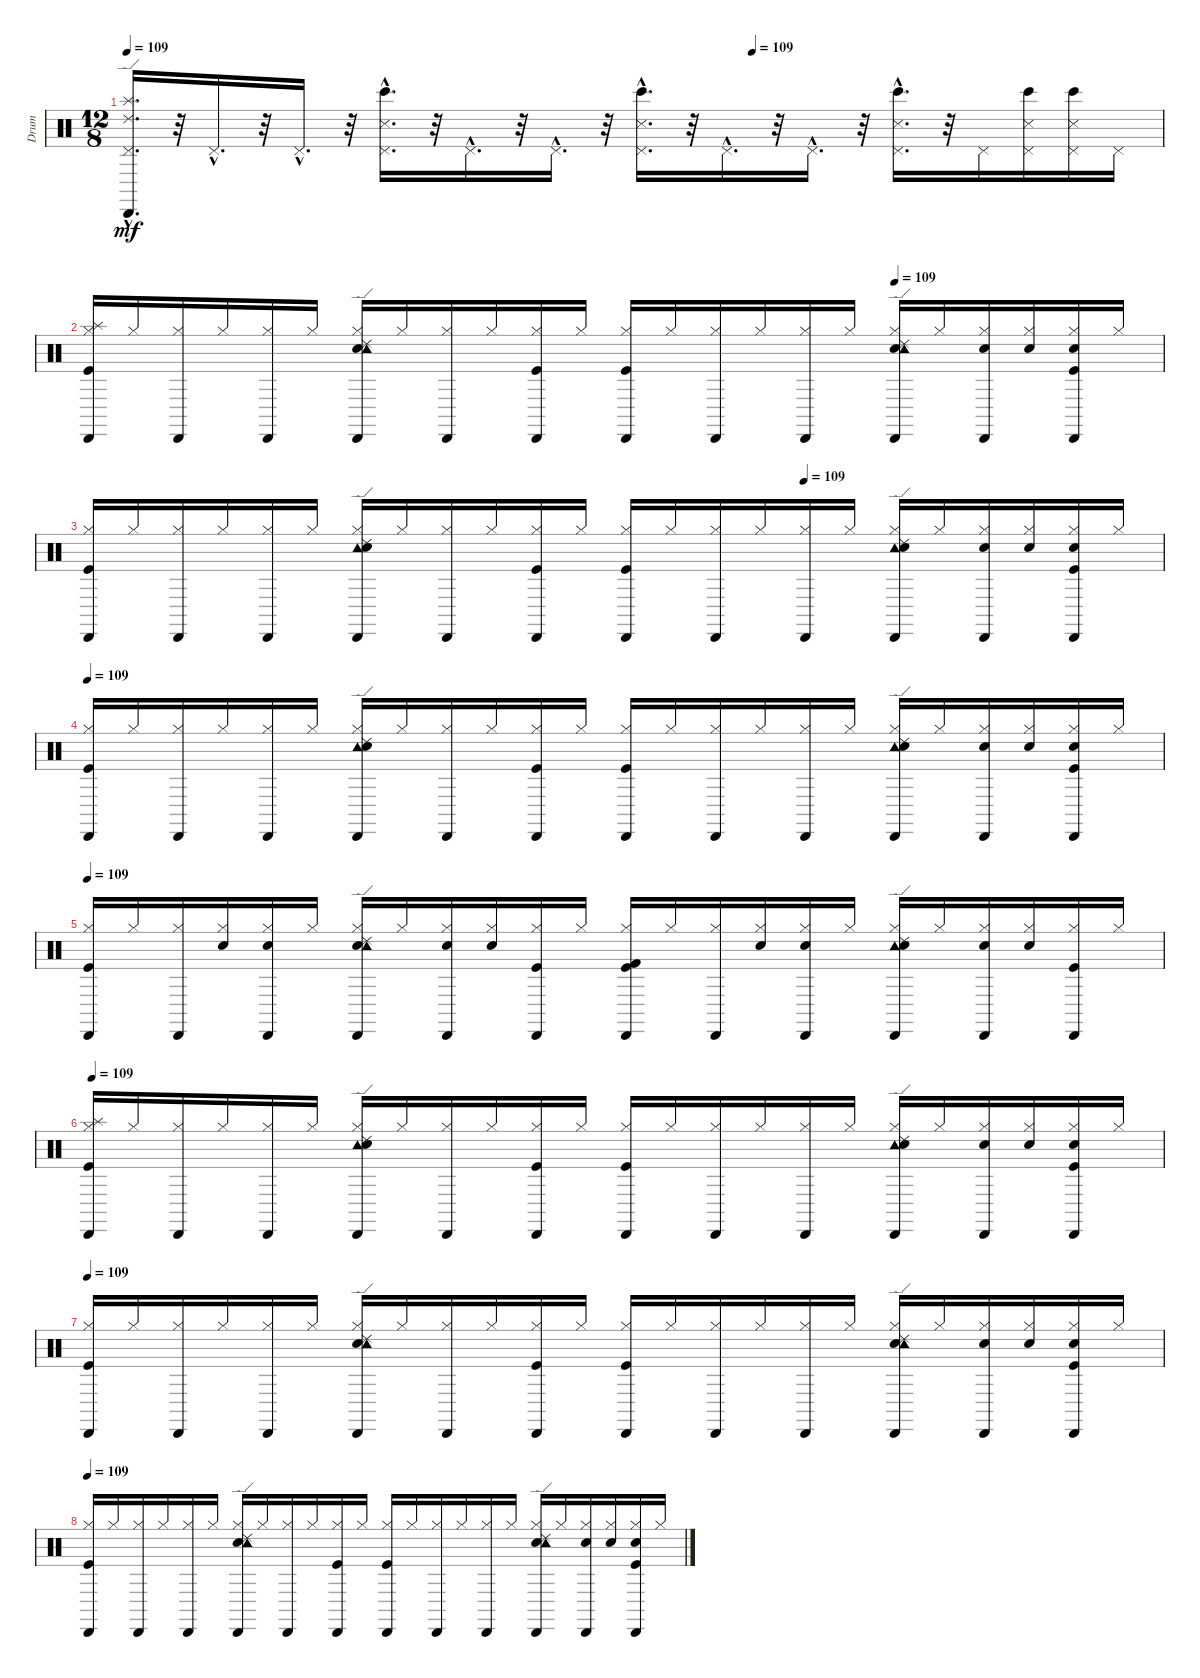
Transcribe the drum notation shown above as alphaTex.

\track ("Drum" "Drum") {instrument percussion}
\staff {score}
\articulation defaults
\ts (12 8)
\tempo 109
\tempo (109 0.6041666666666666)
\clef neutral
\ks c
("Pedal Hi-Hat (hit)"{hac} "Splash (hit)"{hac} "Ride (edge) 2"{hac} "Cabasa (hit)"{hac}).16{d dy mf} r.32 "Pedal Hi-Hat (hit)"{hac}.16{d} r.32 "Pedal Hi-Hat (hit)"{hac}.16{d} r.32 ("Pedal Hi-Hat (hit)"{hac} "Snare (side stick) 3"{hac} "Bongo High (hit)"{hac}).16{d} r.32 "Pedal Hi-Hat (hit)"{hac}.16{d} r.32 "Pedal Hi-Hat (hit)"{hac}.16{d} r.32 ("Pedal Hi-Hat (hit)"{hac} "Bongo High (hit)"{hac} "Snare (side stick) 3"{hac}).16{d} r.32 "Pedal Hi-Hat (hit)"{hac}.16{d} r.32 "Pedal Hi-Hat (hit)"{hac}.16{d} r.32 ("Snare (side stick) 3"{hac} "Pedal Hi-Hat (hit)"{hac} "Bongo High (hit)"{hac}).16{d} r.32 "Pedal Hi-Hat (hit)".16 ("Snare (side stick) 3" "Pedal Hi-Hat (hit)" "Bongo High (hit)").16 ("Snare (side stick) 3" "Bongo High (hit)" "Pedal Hi-Hat (hit)").16 "Pedal Hi-Hat (hit)".16 |
\tempo (109 0.75)
("Hi-Hat (closed)" "Kick (hit)" "Cabasa (hit)" "Splash (hit)").16 "Hi-Hat (closed)".16 ("Hi-Hat (closed)" "Cabasa (hit)").16 "Hi-Hat (closed)".16 ("Hi-Hat (closed)" "Cabasa (hit)").16 "Hi-Hat (closed)".16 ("Hi-Hat (closed)" "Snare (hit) 2" "Tambourine (hit)" "Cabasa (hit)" "Ride (edge) 2").16 "Hi-Hat (closed)".16 ("Hi-Hat (closed)" "Cabasa (hit)").16 "Hi-Hat (closed)".16 ("Hi-Hat (closed)" "Cabasa (hit)" "Kick (hit)").16 "Hi-Hat (closed)".16 ("Hi-Hat (closed)" "Kick (hit)" "Cabasa (hit)").16 "Hi-Hat (closed)".16 ("Hi-Hat (closed)" "Cabasa (hit)").16 "Hi-Hat (closed)".16 ("Hi-Hat (closed)" "Cabasa (hit)").16 "Hi-Hat (closed)".16 ("Hi-Hat (closed)" "Snare (hit) 2" "Tambourine (hit)" "Cabasa (hit)" "Ride (edge) 2").16 "Hi-Hat (closed)".16 ("Hi-Hat (closed)" "Cabasa (hit)" "Electric Snare (hit)").16 ("Hi-Hat (closed)" "Electric Snare (hit)").16 ("Hi-Hat (closed)" "Cabasa (hit)" "Kick (hit)" "Electric Snare (hit)").16 "Hi-Hat (closed)".16 |
\tempo (109 0.6666666666666666)
("Cabasa (hit)" "Kick (hit)" "Hi-Hat (closed)").16 "Hi-Hat (closed)".16 ("Cabasa (hit)" "Hi-Hat (closed)").16 "Hi-Hat (closed)".16 ("Cabasa (hit)" "Hi-Hat (closed)").16 "Hi-Hat (closed)".16 ("Ride (edge) 2" "Cabasa (hit)" "Tambourine (hit)" "Snare (hit) 2" "Hi-Hat (closed)").16 "Hi-Hat (closed)".16 ("Cabasa (hit)" "Hi-Hat (closed)").16 "Hi-Hat (closed)".16 ("Kick (hit)" "Cabasa (hit)" "Hi-Hat (closed)").16 "Hi-Hat (closed)".16 ("Cabasa (hit)" "Kick (hit)" "Hi-Hat (closed)").16 "Hi-Hat (closed)".16 ("Cabasa (hit)" "Hi-Hat (closed)").16 "Hi-Hat (closed)".16 ("Cabasa (hit)" "Hi-Hat (closed)").16 "Hi-Hat (closed)".16 ("Ride (edge) 2" "Cabasa (hit)" "Tambourine (hit)" "Snare (hit) 2" "Hi-Hat (closed)").16 "Hi-Hat (closed)".16 ("Electric Snare (hit)" "Cabasa (hit)" "Hi-Hat (closed)").16 ("Electric Snare (hit)" "Hi-Hat (closed)").16 ("Electric Snare (hit)" "Kick (hit)" "Cabasa (hit)" "Hi-Hat (closed)").16 "Hi-Hat (closed)".16 |
\tempo 109
("Cabasa (hit)" "Kick (hit)" "Hi-Hat (closed)").16 "Hi-Hat (closed)".16 ("Cabasa (hit)" "Hi-Hat (closed)").16 "Hi-Hat (closed)".16 ("Cabasa (hit)" "Hi-Hat (closed)").16 "Hi-Hat (closed)".16 ("Ride (edge) 2" "Cabasa (hit)" "Tambourine (hit)" "Snare (hit) 2" "Hi-Hat (closed)").16 "Hi-Hat (closed)".16 ("Cabasa (hit)" "Hi-Hat (closed)").16 "Hi-Hat (closed)".16 ("Kick (hit)" "Cabasa (hit)" "Hi-Hat (closed)").16 "Hi-Hat (closed)".16 ("Cabasa (hit)" "Kick (hit)" "Hi-Hat (closed)").16 "Hi-Hat (closed)".16 ("Cabasa (hit)" "Hi-Hat (closed)").16 "Hi-Hat (closed)".16 ("Cabasa (hit)" "Hi-Hat (closed)").16 "Hi-Hat (closed)".16 ("Ride (edge) 2" "Cabasa (hit)" "Tambourine (hit)" "Snare (hit) 2" "Hi-Hat (closed)").16 "Hi-Hat (closed)".16 ("Electric Snare (hit)" "Cabasa (hit)" "Hi-Hat (closed)").16 ("Electric Snare (hit)" "Hi-Hat (closed)").16 ("Electric Snare (hit)" "Kick (hit)" "Cabasa (hit)" "Hi-Hat (closed)").16 "Hi-Hat (closed)".16 |
\tempo 109
("Hi-Hat (closed)" "Kick (hit)" "Cabasa (hit)").16 "Hi-Hat (closed)".16 ("Hi-Hat (closed)" "Cabasa (hit)").16 ("Hi-Hat (closed)" "Electric Snare (hit)").16 ("Hi-Hat (closed)" "Electric Snare (hit)" "Cabasa (hit)").16 "Hi-Hat (closed)".16 ("Ride (edge) 2" "Hi-Hat (closed)" "Snare (hit) 2" "Tambourine (hit)" "Cabasa (hit)").16 "Hi-Hat (closed)".16 ("Hi-Hat (closed)" "Electric Snare (hit)" "Cabasa (hit)").16 ("Electric Snare (hit)" "Hi-Hat (closed)").16 ("Cabasa (hit)" "Hi-Hat (closed)" "Kick (hit)").16 "Hi-Hat (closed)".16 ("Hi-Hat (closed)" "Kick (hit) 2" "Kick (hit)" "Cabasa (hit)").16 "Hi-Hat (closed)".16 ("Cabasa (hit)" "Hi-Hat (closed)").16 ("Electric Snare (hit)" "Hi-Hat (closed)").16 ("Hi-Hat (closed)" "Electric Snare (hit)" "Cabasa (hit)").16 "Hi-Hat (closed)".16 ("Tambourine (hit)" "Cabasa (hit)" "Snare (hit) 2" "Hi-Hat (closed)" "Ride (edge) 2").16 "Hi-Hat (closed)".16 ("Electric Snare (hit)" "Hi-Hat (closed)" "Cabasa (hit)").16 ("Electric Snare (hit)" "Hi-Hat (closed)").16 ("Cabasa (hit)" "Hi-Hat (closed)" "Kick (hit)").16 "Hi-Hat (closed)".16 |
\tempo 109
("Splash (hit)" "Cabasa (hit)" "Kick (hit)" "Hi-Hat (closed)").16 "Hi-Hat (closed)".16 ("Cabasa (hit)" "Hi-Hat (closed)").16 "Hi-Hat (closed)".16 ("Cabasa (hit)" "Hi-Hat (closed)").16 "Hi-Hat (closed)".16 ("Ride (edge) 2" "Cabasa (hit)" "Tambourine (hit)" "Snare (hit) 2" "Hi-Hat (closed)").16 "Hi-Hat (closed)".16 ("Cabasa (hit)" "Hi-Hat (closed)").16 "Hi-Hat (closed)".16 ("Kick (hit)" "Cabasa (hit)" "Hi-Hat (closed)").16 "Hi-Hat (closed)".16 ("Cabasa (hit)" "Kick (hit)" "Hi-Hat (closed)").16 "Hi-Hat (closed)".16 ("Cabasa (hit)" "Hi-Hat (closed)").16 "Hi-Hat (closed)".16 ("Cabasa (hit)" "Hi-Hat (closed)").16 "Hi-Hat (closed)".16 ("Ride (edge) 2" "Cabasa (hit)" "Tambourine (hit)" "Snare (hit) 2" "Hi-Hat (closed)").16 "Hi-Hat (closed)".16 ("Electric Snare (hit)" "Cabasa (hit)" "Hi-Hat (closed)").16 ("Electric Snare (hit)" "Hi-Hat (closed)").16 ("Electric Snare (hit)" "Kick (hit)" "Cabasa (hit)" "Hi-Hat (closed)").16 "Hi-Hat (closed)".16 |
\tempo 109
("Hi-Hat (closed)" "Kick (hit)" "Cabasa (hit)").16 "Hi-Hat (closed)".16 ("Hi-Hat (closed)" "Cabasa (hit)").16 "Hi-Hat (closed)".16 ("Hi-Hat (closed)" "Cabasa (hit)").16 "Hi-Hat (closed)".16 ("Hi-Hat (closed)" "Snare (hit) 2" "Tambourine (hit)" "Cabasa (hit)" "Ride (edge) 2").16 "Hi-Hat (closed)".16 ("Hi-Hat (closed)" "Cabasa (hit)").16 "Hi-Hat (closed)".16 ("Hi-Hat (closed)" "Cabasa (hit)" "Kick (hit)").16 "Hi-Hat (closed)".16 ("Hi-Hat (closed)" "Kick (hit)" "Cabasa (hit)").16 "Hi-Hat (closed)".16 ("Hi-Hat (closed)" "Cabasa (hit)").16 "Hi-Hat (closed)".16 ("Hi-Hat (closed)" "Cabasa (hit)").16 "Hi-Hat (closed)".16 ("Hi-Hat (closed)" "Snare (hit) 2" "Tambourine (hit)" "Cabasa (hit)" "Ride (edge) 2").16 "Hi-Hat (closed)".16 ("Hi-Hat (closed)" "Cabasa (hit)" "Electric Snare (hit)").16 ("Hi-Hat (closed)" "Electric Snare (hit)").16 ("Hi-Hat (closed)" "Cabasa (hit)" "Kick (hit)" "Electric Snare (hit)").16 "Hi-Hat (closed)".16 |
\tempo 109
("Hi-Hat (closed)" "Kick (hit)" "Cabasa (hit)").16 "Hi-Hat (closed)".16 ("Hi-Hat (closed)" "Cabasa (hit)").16 "Hi-Hat (closed)".16 ("Hi-Hat (closed)" "Cabasa (hit)").16 "Hi-Hat (closed)".16 ("Hi-Hat (closed)" "Snare (hit) 2" "Tambourine (hit)" "Cabasa (hit)" "Ride (edge) 2").16 "Hi-Hat (closed)".16 ("Hi-Hat (closed)" "Cabasa (hit)").16 "Hi-Hat (closed)".16 ("Hi-Hat (closed)" "Cabasa (hit)" "Kick (hit)").16 "Hi-Hat (closed)".16 ("Hi-Hat (closed)" "Kick (hit)" "Cabasa (hit)").16 "Hi-Hat (closed)".16 ("Hi-Hat (closed)" "Cabasa (hit)").16 "Hi-Hat (closed)".16 ("Hi-Hat (closed)" "Cabasa (hit)").16 "Hi-Hat (closed)".16 ("Hi-Hat (closed)" "Snare (hit) 2" "Tambourine (hit)" "Cabasa (hit)" "Ride (edge) 2").16 "Hi-Hat (closed)".16 ("Hi-Hat (closed)" "Cabasa (hit)" "Electric Snare (hit)").16 ("Hi-Hat (closed)" "Electric Snare (hit)").16 ("Hi-Hat (closed)" "Cabasa (hit)" "Kick (hit)" "Electric Snare (hit)").16 "Hi-Hat (closed)".16
